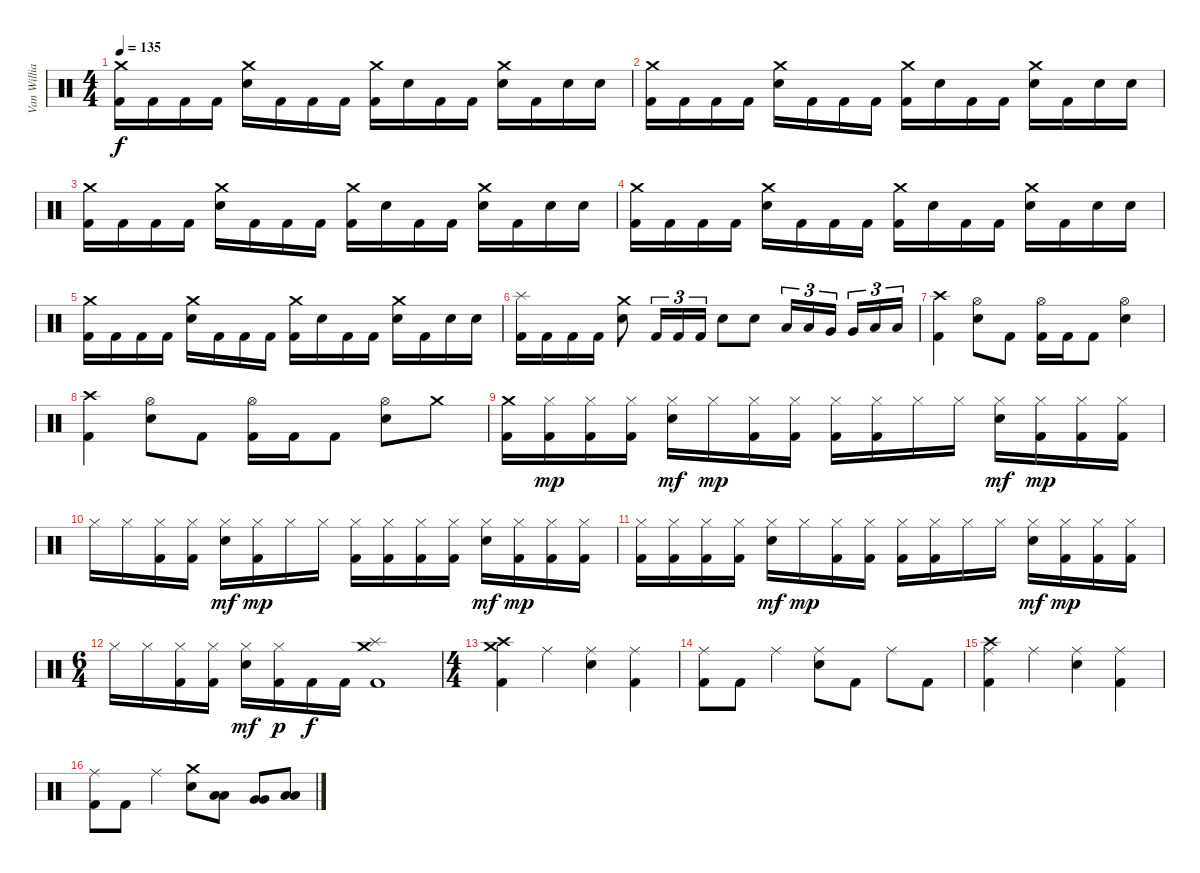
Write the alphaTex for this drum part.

\track ("Van Williams" "Van Willia") {instrument percussion}
\staff {score}
\articulation defaults
\ts (4 4)
\tempo 135
\clef neutral
\ks c
("Crash medium (hit)" "Kick (hit) 2").16{dy f} "Kick (hit) 2".16 "Kick (hit) 2".16 "Kick (hit) 2".16 ("Crash medium (hit)" "Electric Snare (hit)").16 "Kick (hit) 2".16 "Kick (hit) 2".16 "Kick (hit) 2".16 ("Crash medium (hit)" "Kick (hit) 2").16 "Electric Snare (hit)".16 "Kick (hit) 2".16 "Kick (hit) 2".16 ("Crash medium (hit)" "Electric Snare (hit)").16 "Kick (hit) 2".16 "Electric Snare (hit)".16 "Electric Snare (hit)".16 |
("Crash medium (hit)" "Kick (hit) 2").16 "Kick (hit) 2".16 "Kick (hit) 2".16 "Kick (hit) 2".16 ("Crash medium (hit)" "Electric Snare (hit)").16 "Kick (hit) 2".16 "Kick (hit) 2".16 "Kick (hit) 2".16 ("Crash medium (hit)" "Kick (hit) 2").16 "Electric Snare (hit)".16 "Kick (hit) 2".16 "Kick (hit) 2".16 ("Crash medium (hit)" "Electric Snare (hit)").16 "Kick (hit) 2".16 "Electric Snare (hit)".16 "Electric Snare (hit)".16 |
("Crash medium (hit)" "Kick (hit) 2").16 "Kick (hit) 2".16 "Kick (hit) 2".16 "Kick (hit) 2".16 ("Crash medium (hit)" "Electric Snare (hit)").16 "Kick (hit) 2".16 "Kick (hit) 2".16 "Kick (hit) 2".16 ("Crash medium (hit)" "Kick (hit) 2").16 "Electric Snare (hit)".16 "Kick (hit) 2".16 "Kick (hit) 2".16 ("Crash medium (hit)" "Electric Snare (hit)").16 "Kick (hit) 2".16 "Electric Snare (hit)".16 "Electric Snare (hit)".16 |
("Crash medium (hit)" "Kick (hit) 2").16 "Kick (hit) 2".16 "Kick (hit) 2".16 "Kick (hit) 2".16 ("Crash medium (hit)" "Electric Snare (hit)").16 "Kick (hit) 2".16 "Kick (hit) 2".16 "Kick (hit) 2".16 ("Crash medium (hit)" "Kick (hit) 2").16 "Electric Snare (hit)".16 "Kick (hit) 2".16 "Kick (hit) 2".16 ("Crash medium (hit)" "Electric Snare (hit)").16 "Kick (hit) 2".16 "Electric Snare (hit)".16 "Electric Snare (hit)".16 |
("Crash medium (hit)" "Kick (hit) 2").16 "Kick (hit) 2".16 "Kick (hit) 2".16 "Kick (hit) 2".16 ("Crash medium (hit)" "Electric Snare (hit)").16 "Kick (hit) 2".16 "Kick (hit) 2".16 "Kick (hit) 2".16 ("Crash medium (hit)" "Kick (hit) 2").16 "Electric Snare (hit)".16 "Kick (hit) 2".16 "Kick (hit) 2".16 ("Crash medium (hit)" "Electric Snare (hit)").16 "Kick (hit) 2".16 "Electric Snare (hit)".16 "Electric Snare (hit)".16 |
("Splash (hit)" "Kick (hit) 2").16 "Kick (hit) 2".16 "Kick (hit) 2".16 "Kick (hit) 2".16 ("Crash medium (hit)" "Electric Snare (hit)").8 "Kick (hit) 2".16{tu (3 2)} "Kick (hit) 2".16{tu (3 2)} "Kick (hit) 2".16{tu (3 2)} "Electric Snare (hit)".8 "Electric Snare (hit)".8 "Low Tom (hit)".16{tu (3 2)} "Low Tom (hit)".16{tu (3 2)} "Very Low Tom (hit)".16{tu (3 2)} "Very Low Tom (hit)".16{tu (3 2)} "Low Floor Tom (hit)".16{tu (3 2)} "Low Floor Tom (hit)".16{tu (3 2)} |
("Crash high (hit)" "Kick (hit) 2").4 ("Hi-Hat (open)" "Electric Snare (hit)").8 "Kick (hit) 2".8 ("Hi-Hat (open)" "Kick (hit) 2").16 "Kick (hit) 2".16 "Kick (hit) 2".8 ("Hi-Hat (open)" "Electric Snare (hit)").4 |
("Crash high (hit)" "Kick (hit) 2").4 ("Hi-Hat (open)" "Electric Snare (hit)").8 "Kick (hit) 2".8 ("Hi-Hat (open)" "Kick (hit) 2").16 "Kick (hit) 2".16 "Kick (hit) 2".8 ("Hi-Hat (open)" "Electric Snare (hit)").8 "Crash medium (hit)".8 |
("Crash medium (hit)" "Kick (hit) 2").16 ("Hi-Hat (closed)" "Kick (hit) 2").16{dy mp} ("Hi-Hat (closed)" "Kick (hit) 2").16 ("Hi-Hat (closed)" "Kick (hit) 2").16 ("Hi-Hat (closed)" "Electric Snare (hit)").16{dy mf} "Hi-Hat (closed)".16{dy mp} ("Hi-Hat (closed)" "Kick (hit) 2").16 ("Hi-Hat (closed)" "Kick (hit) 2").16 ("Hi-Hat (closed)" "Kick (hit) 2").16 ("Hi-Hat (closed)" "Kick (hit) 2").16 "Hi-Hat (closed)".16 "Hi-Hat (closed)".16 ("Hi-Hat (closed)" "Electric Snare (hit)").16{dy mf} ("Hi-Hat (closed)" "Kick (hit) 2").16{dy mp} ("Hi-Hat (closed)" "Kick (hit) 2").16 ("Hi-Hat (closed)" "Kick (hit) 2").16 |
"Hi-Hat (closed)".16 "Hi-Hat (closed)".16 ("Hi-Hat (closed)" "Kick (hit) 2").16 ("Hi-Hat (closed)" "Kick (hit) 2").16 ("Hi-Hat (closed)" "Electric Snare (hit)").16{dy mf} ("Hi-Hat (closed)" "Kick (hit) 2").16{dy mp} "Hi-Hat (closed)".16 "Hi-Hat (closed)".16 ("Hi-Hat (closed)" "Kick (hit) 2").16 ("Hi-Hat (closed)" "Kick (hit) 2").16 ("Hi-Hat (closed)" "Kick (hit) 2").16 ("Hi-Hat (closed)" "Kick (hit) 2").16 ("Hi-Hat (closed)" "Electric Snare (hit)").16{dy mf} ("Hi-Hat (closed)" "Kick (hit) 2").16{dy mp} ("Hi-Hat (closed)" "Kick (hit) 2").16 ("Hi-Hat (closed)" "Kick (hit) 2").16 |
("Hi-Hat (closed)" "Kick (hit) 2").16 ("Hi-Hat (closed)" "Kick (hit) 2").16 ("Hi-Hat (closed)" "Kick (hit) 2").16 ("Hi-Hat (closed)" "Kick (hit) 2").16 ("Hi-Hat (closed)" "Electric Snare (hit)").16{dy mf} "Hi-Hat (closed)".16{dy mp} ("Hi-Hat (closed)" "Kick (hit) 2").16 ("Hi-Hat (closed)" "Kick (hit) 2").16 ("Hi-Hat (closed)" "Kick (hit) 2").16 ("Hi-Hat (closed)" "Kick (hit) 2").16 "Hi-Hat (closed)".16 "Hi-Hat (closed)".16 ("Hi-Hat (closed)" "Electric Snare (hit)").16{dy mf} ("Hi-Hat (closed)" "Kick (hit) 2").16{dy mp} ("Hi-Hat (closed)" "Kick (hit) 2").16 ("Hi-Hat (closed)" "Kick (hit) 2").16 |
\ts (6 4)
"Hi-Hat (closed)".16 "Hi-Hat (closed)".16 ("Hi-Hat (closed)" "Kick (hit) 2").16 ("Hi-Hat (closed)" "Kick (hit) 2").16 ("Hi-Hat (closed)" "Electric Snare (hit)").16{dy mf} ("Hi-Hat (closed)" "Kick (hit) 2").16{dy p} "Kick (hit) 2".16{dy f} "Kick (hit) 2".16 ("Crash medium (hit)" "Splash (hit)" "Kick (hit) 2").1 |
\ts (4 4)
("Crash medium (hit)" "Crash high (hit)" "Kick (hit) 2").4 "Ride (middle)".4 ("Ride (middle)" "Electric Snare (hit)").4 ("Ride (middle)" "Kick (hit) 2").4 |
("Ride (middle)" "Kick (hit) 2").8 "Kick (hit) 2".8 "Ride (middle)".4 ("Ride (middle)" "Electric Snare (hit)").8 "Kick (hit) 2".8 "Ride (middle)".8 "Kick (hit) 2".8 |
("Crash high (hit)" "Ride (middle)" "Kick (hit) 2").4 "Ride (middle)".4 ("Ride (middle)" "Electric Snare (hit)").4 ("Ride (middle)" "Kick (hit) 2").4 |
("Ride (middle)" "Kick (hit) 2").8 "Kick (hit) 2".8 "Ride (middle)".4 ("Crash medium (hit)" "Electric Snare (hit)").8 ("Low Floor Tom (hit)" "Low Floor Tom (hit)").8 ("Very Low Tom (hit)" "Very Low Tom (hit)").8 ("Low Floor Tom (hit)" "Low Floor Tom (hit)").8
